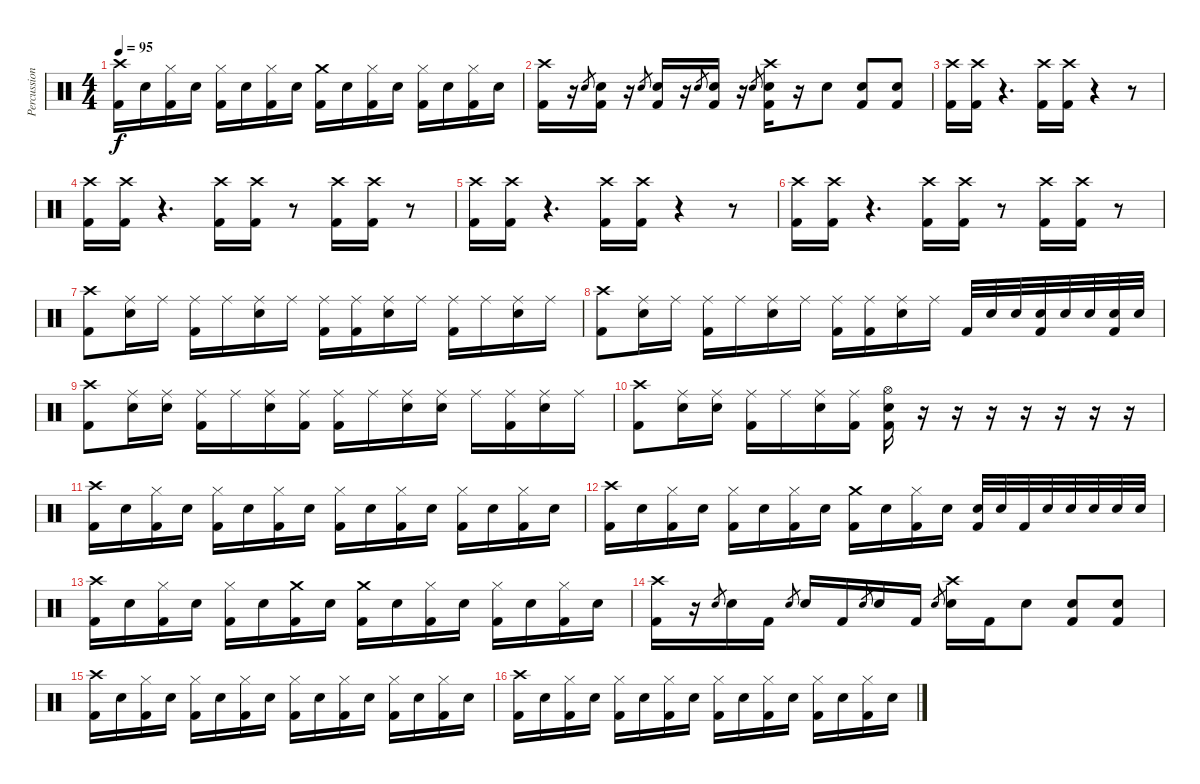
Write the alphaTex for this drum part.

\track ("Percussions" "Percussion") {instrument percussion}
\staff {score}
\articulation defaults
\ts (4 4)
\tempo 95
\clef neutral
\ks c
("Crash high (hit)" "Kick (hit) 2").16{dy f} "Electric Snare (hit)".16 ("Hi-Hat (closed)" "Kick (hit) 2").16 "Electric Snare (hit)".16 ("Hi-Hat (closed)" "Kick (hit) 2").16 "Electric Snare (hit)".16 ("Hi-Hat (closed)" "Kick (hit) 2").16 "Electric Snare (hit)".16 ("Crash medium (hit)" "Kick (hit) 2").16 "Electric Snare (hit)".16 ("Hi-Hat (closed)" "Kick (hit) 2").16 "Electric Snare (hit)".16 ("Hi-Hat (closed)" "Kick (hit) 2").16 "Electric Snare (hit)".16 ("Hi-Hat (closed)" "Kick (hit) 2").16 "Electric Snare (hit)".16 |
("Crash high (hit)" "Kick (hit) 2").16 r.16 "Electric Snare (hit)".8{gr} ("Electric Snare (hit)" "Kick (hit) 2").16 r.16 "Electric Snare (hit)".8{gr} ("Electric Snare (hit)" "Kick (hit) 2").16 r.16 "Electric Snare (hit)".8{gr} ("Electric Snare (hit)" "Kick (hit) 2").16 r.16 "Electric Snare (hit)".8{gr} ("Crash high (hit)" "Electric Snare (hit)" "Kick (hit) 2").16 r.16 "Electric Snare (hit)".8 ("Electric Snare (hit)" "Kick (hit) 2").8 ("Electric Snare (hit)" "Kick (hit) 2").8 |
("Crash high (hit)" "Kick (hit) 2").16 ("Crash high (hit)" "Kick (hit) 2").16 r.4{d} ("Crash high (hit)" "Kick (hit) 2").16 ("Crash high (hit)" "Kick (hit) 2").16 r.4 r.8 |
("Crash high (hit)" "Kick (hit) 2").16 ("Crash high (hit)" "Kick (hit) 2").16 r.4{d} ("Crash high (hit)" "Kick (hit) 2").16 ("Crash high (hit)" "Kick (hit) 2").16 r.8 ("Crash high (hit)" "Kick (hit) 2").16 ("Crash high (hit)" "Kick (hit) 2").16 r.8 |
("Crash high (hit)" "Kick (hit) 2").16 ("Crash high (hit)" "Kick (hit) 2").16 r.4{d} ("Crash high (hit)" "Kick (hit) 2").16 ("Crash high (hit)" "Kick (hit) 2").16 r.4 r.8 |
("Crash high (hit)" "Kick (hit) 2").16 ("Crash high (hit)" "Kick (hit) 2").16 r.4{d} ("Crash high (hit)" "Kick (hit) 2").16 ("Crash high (hit)" "Kick (hit) 2").16 r.8 ("Crash high (hit)" "Kick (hit) 2").16 ("Crash high (hit)" "Kick (hit) 2").16 r.8 |
("Crash high (hit)" "Kick (hit) 2").8 ("Ride (middle)" "Electric Snare (hit)").16 "Ride (middle)".16 ("Ride (middle)" "Kick (hit) 2").16 "Ride (middle)".16 ("Ride (middle)" "Electric Snare (hit)").16 "Ride (middle)".16 ("Ride (middle)" "Kick (hit) 2").16 ("Ride (middle)" "Kick (hit) 2").16 ("Ride (middle)" "Electric Snare (hit)").16 "Ride (middle)".16 ("Ride (middle)" "Kick (hit) 2").16 "Ride (middle)".16 ("Ride (middle)" "Electric Snare (hit)").16 "Ride (middle)".16 |
("Crash high (hit)" "Kick (hit) 2").8 ("Ride (middle)" "Electric Snare (hit)").16 "Ride (middle)".16 ("Ride (middle)" "Kick (hit) 2").16 "Ride (middle)".16 ("Ride (middle)" "Electric Snare (hit)").16 "Ride (middle)".16 ("Ride (middle)" "Kick (hit) 2").16 ("Ride (middle)" "Kick (hit) 2").16 ("Ride (middle)" "Electric Snare (hit)").16 "Ride (middle)".16 "Kick (hit) 2".32 "Electric Snare (hit)".32 "Electric Snare (hit)".32 ("Electric Snare (hit)" "Kick (hit) 2").32 "Electric Snare (hit)".32 "Electric Snare (hit)".32 ("Electric Snare (hit)" "Kick (hit) 2").32 "Electric Snare (hit)".32 |
("Crash high (hit)" "Kick (hit) 2").8 ("Ride (middle)" "Electric Snare (hit)").16 ("Ride (middle)" "Electric Snare (hit)").16 ("Ride (middle)" "Kick (hit) 2").16 "Ride (middle)".16 ("Ride (middle)" "Electric Snare (hit)").16 ("Ride (middle)" "Kick (hit) 2").16 ("Ride (middle)" "Kick (hit) 2").16 "Ride (middle)".16 ("Ride (middle)" "Electric Snare (hit)").16 ("Ride (middle)" "Electric Snare (hit)").16 "Ride (middle)".16 ("Ride (middle)" "Kick (hit) 2").16 ("Ride (middle)" "Electric Snare (hit)").16 "Ride (middle)".16 |
("Crash high (hit)" "Kick (hit) 2").8 ("Ride (middle)" "Electric Snare (hit)").16 ("Ride (middle)" "Electric Snare (hit)").16 ("Ride (middle)" "Kick (hit) 2").16 "Ride (middle)".16 ("Ride (middle)" "Electric Snare (hit)").16 ("Ride (middle)" "Kick (hit) 2").16 ("Hi-Hat (open)" "Electric Snare (hit)" "Kick (hit) 2").16 r.16 r.16 r.16 r.16 r.16 r.16 r.16 |
("Crash high (hit)" "Kick (hit) 2").16 "Electric Snare (hit)".16 ("Hi-Hat (closed)" "Kick (hit) 2").16 "Electric Snare (hit)".16 ("Hi-Hat (closed)" "Kick (hit) 2").16 "Electric Snare (hit)".16 ("Hi-Hat (closed)" "Kick (hit) 2").16 "Electric Snare (hit)".16 ("Hi-Hat (closed)" "Kick (hit) 2").16 "Electric Snare (hit)".16 ("Hi-Hat (closed)" "Kick (hit) 2").16 "Electric Snare (hit)".16 ("Hi-Hat (closed)" "Kick (hit) 2").16 "Electric Snare (hit)".16 ("Hi-Hat (closed)" "Kick (hit) 2").16 "Electric Snare (hit)".16 |
("Crash high (hit)" "Kick (hit) 2").16 "Electric Snare (hit)".16 ("Hi-Hat (closed)" "Kick (hit) 2").16 "Electric Snare (hit)".16 ("Hi-Hat (closed)" "Kick (hit) 2").16 "Electric Snare (hit)".16 ("Hi-Hat (closed)" "Kick (hit) 2").16 "Electric Snare (hit)".16 ("Crash medium (hit)" "Kick (hit) 2").16 "Electric Snare (hit)".16 ("Hi-Hat (closed)" "Kick (hit) 2").16 "Electric Snare (hit)".16 ("Electric Snare (hit)" "Kick (hit) 2").32 "Electric Snare (hit)".32 "Kick (hit) 2".32 "Electric Snare (hit)".32 "Electric Snare (hit)".32 "Electric Snare (hit)".32 "Electric Snare (hit)".32 "Electric Snare (hit)".32 |
("Crash high (hit)" "Kick (hit) 2").16 "Electric Snare (hit)".16 ("Hi-Hat (closed)" "Kick (hit) 2").16 "Electric Snare (hit)".16 ("Hi-Hat (closed)" "Kick (hit) 2").16 "Electric Snare (hit)".16 ("Crash medium (hit)" "Kick (hit) 2").16 "Electric Snare (hit)".16 ("Crash medium (hit)" "Kick (hit) 2").16 "Electric Snare (hit)".16 ("Hi-Hat (closed)" "Kick (hit) 2").16 "Electric Snare (hit)".16 ("Hi-Hat (closed)" "Kick (hit) 2").16 "Electric Snare (hit)".16 ("Hi-Hat (closed)" "Kick (hit) 2").16 "Electric Snare (hit)".16 |
("Crash high (hit)" "Kick (hit) 2").16 r.16 "Electric Snare (hit)".8{gr} "Electric Snare (hit)".16 "Kick (hit) 2".16 "Electric Snare (hit)".8{gr} "Electric Snare (hit)".16 "Kick (hit) 2".16 "Electric Snare (hit)".8{gr} "Electric Snare (hit)".16 "Kick (hit) 2".16 "Electric Snare (hit)".8{gr} ("Crash high (hit)" "Electric Snare (hit)").16 "Kick (hit) 2".16 "Electric Snare (hit)".8 ("Electric Snare (hit)" "Kick (hit) 2").8 ("Electric Snare (hit)" "Kick (hit) 2").8 |
("Crash high (hit)" "Kick (hit) 2").16 "Electric Snare (hit)".16 ("Hi-Hat (closed)" "Kick (hit) 2").16 "Electric Snare (hit)".16 ("Hi-Hat (closed)" "Kick (hit) 2").16 "Electric Snare (hit)".16 ("Hi-Hat (closed)" "Kick (hit) 2").16 "Electric Snare (hit)".16 ("Hi-Hat (closed)" "Kick (hit) 2").16 "Electric Snare (hit)".16 ("Hi-Hat (closed)" "Kick (hit) 2").16 "Electric Snare (hit)".16 ("Hi-Hat (closed)" "Kick (hit) 2").16 "Electric Snare (hit)".16 ("Hi-Hat (closed)" "Kick (hit) 2").16 "Electric Snare (hit)".16 |
("Crash high (hit)" "Kick (hit) 2").16 "Electric Snare (hit)".16 ("Hi-Hat (closed)" "Kick (hit) 2").16 "Electric Snare (hit)".16 ("Hi-Hat (closed)" "Kick (hit) 2").16 "Electric Snare (hit)".16 ("Hi-Hat (closed)" "Kick (hit) 2").16 "Electric Snare (hit)".16 ("Hi-Hat (closed)" "Kick (hit) 2").16 "Electric Snare (hit)".16 ("Hi-Hat (closed)" "Kick (hit) 2").16 "Electric Snare (hit)".16 ("Hi-Hat (closed)" "Kick (hit) 2").16 "Electric Snare (hit)".16 ("Hi-Hat (closed)" "Kick (hit) 2").16 "Electric Snare (hit)".16
